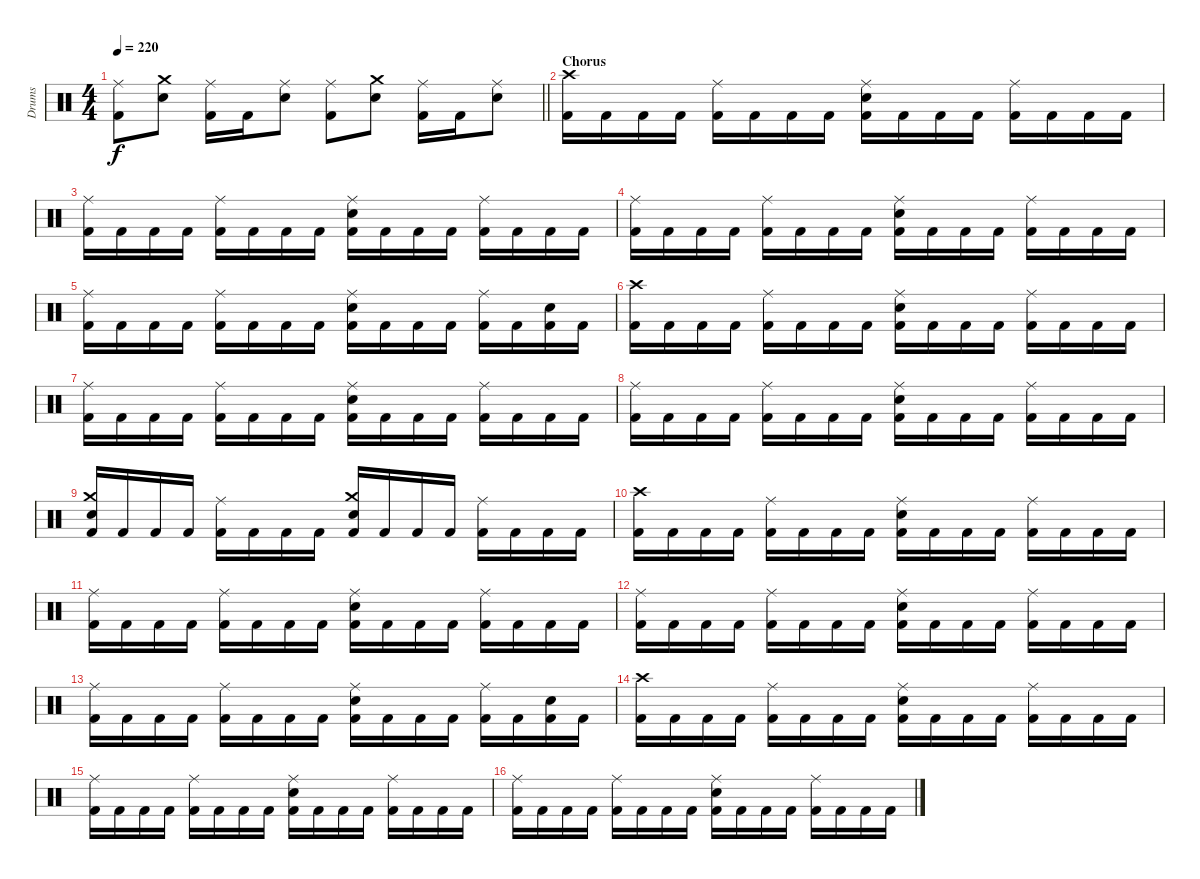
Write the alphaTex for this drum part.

\track ("Drums" "Drums") {instrument percussion}
\staff {score}
\articulation defaults
\ts (4 4)
\tempo 220
\clef neutral
\barLineRight lightlight
\ks c
("Ride (middle)" "Kick (hit) 2").8{dy f} ("Crash medium (hit)" "Snare (hit) 2").8 ("Ride (middle)" "Kick (hit) 2").16 "Kick (hit) 2".16 ("Ride (middle)" "Snare (hit) 2").8 ("Ride (middle)" "Kick (hit) 2").8 ("Crash medium (hit)" "Snare (hit) 2").8 ("Ride (middle)" "Kick (hit) 2").16 "Kick (hit) 2".16 ("Ride (middle)" "Snare (hit) 2").8 |
\section ("" "Chorus")
("Crash high (hit)" "Kick (hit) 2").16 "Kick (hit) 2".16 "Kick (hit) 2".16 "Kick (hit) 2".16 ("Ride (middle)" "Kick (hit) 2").16 "Kick (hit) 2".16 "Kick (hit) 2".16 "Kick (hit) 2".16 ("Ride (middle)" "Snare (hit) 2" "Kick (hit) 2").16 "Kick (hit) 2".16 "Kick (hit) 2".16 "Kick (hit) 2".16 ("Ride (middle)" "Kick (hit) 2").16 "Kick (hit) 2".16 "Kick (hit) 2".16 "Kick (hit) 2".16 |
("Ride (middle)" "Kick (hit) 2").16 "Kick (hit) 2".16 "Kick (hit) 2".16 "Kick (hit) 2".16 ("Ride (middle)" "Kick (hit) 2").16 "Kick (hit) 2".16 "Kick (hit) 2".16 "Kick (hit) 2".16 ("Ride (middle)" "Snare (hit) 2" "Kick (hit) 2").16 "Kick (hit) 2".16 "Kick (hit) 2".16 "Kick (hit) 2".16 ("Ride (middle)" "Kick (hit) 2").16 "Kick (hit) 2".16 "Kick (hit) 2".16 "Kick (hit) 2".16 |
("Ride (middle)" "Kick (hit) 2").16 "Kick (hit) 2".16 "Kick (hit) 2".16 "Kick (hit) 2".16 ("Ride (middle)" "Kick (hit) 2").16 "Kick (hit) 2".16 "Kick (hit) 2".16 "Kick (hit) 2".16 ("Ride (middle)" "Snare (hit) 2" "Kick (hit) 2").16 "Kick (hit) 2".16 "Kick (hit) 2".16 "Kick (hit) 2".16 ("Ride (middle)" "Kick (hit) 2").16 "Kick (hit) 2".16 "Kick (hit) 2".16 "Kick (hit) 2".16 |
("Ride (middle)" "Kick (hit) 2").16 "Kick (hit) 2".16 "Kick (hit) 2".16 "Kick (hit) 2".16 ("Ride (middle)" "Kick (hit) 2").16 "Kick (hit) 2".16 "Kick (hit) 2".16 "Kick (hit) 2".16 ("Ride (middle)" "Snare (hit) 2" "Kick (hit) 2").16 "Kick (hit) 2".16 "Kick (hit) 2".16 "Kick (hit) 2".16 ("Ride (middle)" "Kick (hit) 2").16 "Kick (hit) 2".16 ("Snare (hit) 2" "Kick (hit) 2").16 "Kick (hit) 2".16 |
("Crash high (hit)" "Kick (hit) 2").16 "Kick (hit) 2".16 "Kick (hit) 2".16 "Kick (hit) 2".16 ("Ride (middle)" "Kick (hit) 2").16 "Kick (hit) 2".16 "Kick (hit) 2".16 "Kick (hit) 2".16 ("Ride (middle)" "Snare (hit) 2" "Kick (hit) 2").16 "Kick (hit) 2".16 "Kick (hit) 2".16 "Kick (hit) 2".16 ("Ride (middle)" "Kick (hit) 2").16 "Kick (hit) 2".16 "Kick (hit) 2".16 "Kick (hit) 2".16 |
("Ride (middle)" "Kick (hit) 2").16 "Kick (hit) 2".16 "Kick (hit) 2".16 "Kick (hit) 2".16 ("Ride (middle)" "Kick (hit) 2").16 "Kick (hit) 2".16 "Kick (hit) 2".16 "Kick (hit) 2".16 ("Ride (middle)" "Snare (hit) 2" "Kick (hit) 2").16 "Kick (hit) 2".16 "Kick (hit) 2".16 "Kick (hit) 2".16 ("Ride (middle)" "Kick (hit) 2").16 "Kick (hit) 2".16 "Kick (hit) 2".16 "Kick (hit) 2".16 |
("Ride (middle)" "Kick (hit) 2").16 "Kick (hit) 2".16 "Kick (hit) 2".16 "Kick (hit) 2".16 ("Ride (middle)" "Kick (hit) 2").16 "Kick (hit) 2".16 "Kick (hit) 2".16 "Kick (hit) 2".16 ("Ride (middle)" "Snare (hit) 2" "Kick (hit) 2").16 "Kick (hit) 2".16 "Kick (hit) 2".16 "Kick (hit) 2".16 ("Ride (middle)" "Kick (hit) 2").16 "Kick (hit) 2".16 "Kick (hit) 2".16 "Kick (hit) 2".16 |
("Crash medium (hit)" "Snare (hit) 2" "Kick (hit) 2").16 "Kick (hit) 2".16 "Kick (hit) 2".16 "Kick (hit) 2".16 ("Ride (middle)" "Kick (hit) 2").16 "Kick (hit) 2".16 "Kick (hit) 2".16 "Kick (hit) 2".16 ("Crash medium (hit)" "Snare (hit) 2" "Kick (hit) 2").16 "Kick (hit) 2".16 "Kick (hit) 2".16 "Kick (hit) 2".16 ("Ride (middle)" "Kick (hit) 2").16 "Kick (hit) 2".16 "Kick (hit) 2".16 "Kick (hit) 2".16 |
("Crash high (hit)" "Kick (hit) 2").16 "Kick (hit) 2".16 "Kick (hit) 2".16 "Kick (hit) 2".16 ("Ride (middle)" "Kick (hit) 2").16 "Kick (hit) 2".16 "Kick (hit) 2".16 "Kick (hit) 2".16 ("Ride (middle)" "Snare (hit) 2" "Kick (hit) 2").16 "Kick (hit) 2".16 "Kick (hit) 2".16 "Kick (hit) 2".16 ("Ride (middle)" "Kick (hit) 2").16 "Kick (hit) 2".16 "Kick (hit) 2".16 "Kick (hit) 2".16 |
("Ride (middle)" "Kick (hit) 2").16 "Kick (hit) 2".16 "Kick (hit) 2".16 "Kick (hit) 2".16 ("Ride (middle)" "Kick (hit) 2").16 "Kick (hit) 2".16 "Kick (hit) 2".16 "Kick (hit) 2".16 ("Ride (middle)" "Snare (hit) 2" "Kick (hit) 2").16 "Kick (hit) 2".16 "Kick (hit) 2".16 "Kick (hit) 2".16 ("Ride (middle)" "Kick (hit) 2").16 "Kick (hit) 2".16 "Kick (hit) 2".16 "Kick (hit) 2".16 |
("Ride (middle)" "Kick (hit) 2").16 "Kick (hit) 2".16 "Kick (hit) 2".16 "Kick (hit) 2".16 ("Ride (middle)" "Kick (hit) 2").16 "Kick (hit) 2".16 "Kick (hit) 2".16 "Kick (hit) 2".16 ("Ride (middle)" "Snare (hit) 2" "Kick (hit) 2").16 "Kick (hit) 2".16 "Kick (hit) 2".16 "Kick (hit) 2".16 ("Ride (middle)" "Kick (hit) 2").16 "Kick (hit) 2".16 "Kick (hit) 2".16 "Kick (hit) 2".16 |
("Ride (middle)" "Kick (hit) 2").16 "Kick (hit) 2".16 "Kick (hit) 2".16 "Kick (hit) 2".16 ("Ride (middle)" "Kick (hit) 2").16 "Kick (hit) 2".16 "Kick (hit) 2".16 "Kick (hit) 2".16 ("Ride (middle)" "Snare (hit) 2" "Kick (hit) 2").16 "Kick (hit) 2".16 "Kick (hit) 2".16 "Kick (hit) 2".16 ("Ride (middle)" "Kick (hit) 2").16 "Kick (hit) 2".16 ("Snare (hit) 2" "Kick (hit) 2").16 "Kick (hit) 2".16 |
("Crash high (hit)" "Kick (hit) 2").16 "Kick (hit) 2".16 "Kick (hit) 2".16 "Kick (hit) 2".16 ("Ride (middle)" "Kick (hit) 2").16 "Kick (hit) 2".16 "Kick (hit) 2".16 "Kick (hit) 2".16 ("Ride (middle)" "Snare (hit) 2" "Kick (hit) 2").16 "Kick (hit) 2".16 "Kick (hit) 2".16 "Kick (hit) 2".16 ("Ride (middle)" "Kick (hit) 2").16 "Kick (hit) 2".16 "Kick (hit) 2".16 "Kick (hit) 2".16 |
("Ride (middle)" "Kick (hit) 2").16 "Kick (hit) 2".16 "Kick (hit) 2".16 "Kick (hit) 2".16 ("Ride (middle)" "Kick (hit) 2").16 "Kick (hit) 2".16 "Kick (hit) 2".16 "Kick (hit) 2".16 ("Ride (middle)" "Snare (hit) 2" "Kick (hit) 2").16 "Kick (hit) 2".16 "Kick (hit) 2".16 "Kick (hit) 2".16 ("Ride (middle)" "Kick (hit) 2").16 "Kick (hit) 2".16 "Kick (hit) 2".16 "Kick (hit) 2".16 |
("Ride (middle)" "Kick (hit) 2").16 "Kick (hit) 2".16 "Kick (hit) 2".16 "Kick (hit) 2".16 ("Ride (middle)" "Kick (hit) 2").16 "Kick (hit) 2".16 "Kick (hit) 2".16 "Kick (hit) 2".16 ("Ride (middle)" "Snare (hit) 2" "Kick (hit) 2").16 "Kick (hit) 2".16 "Kick (hit) 2".16 "Kick (hit) 2".16 ("Ride (middle)" "Kick (hit) 2").16 "Kick (hit) 2".16 "Kick (hit) 2".16 "Kick (hit) 2".16
